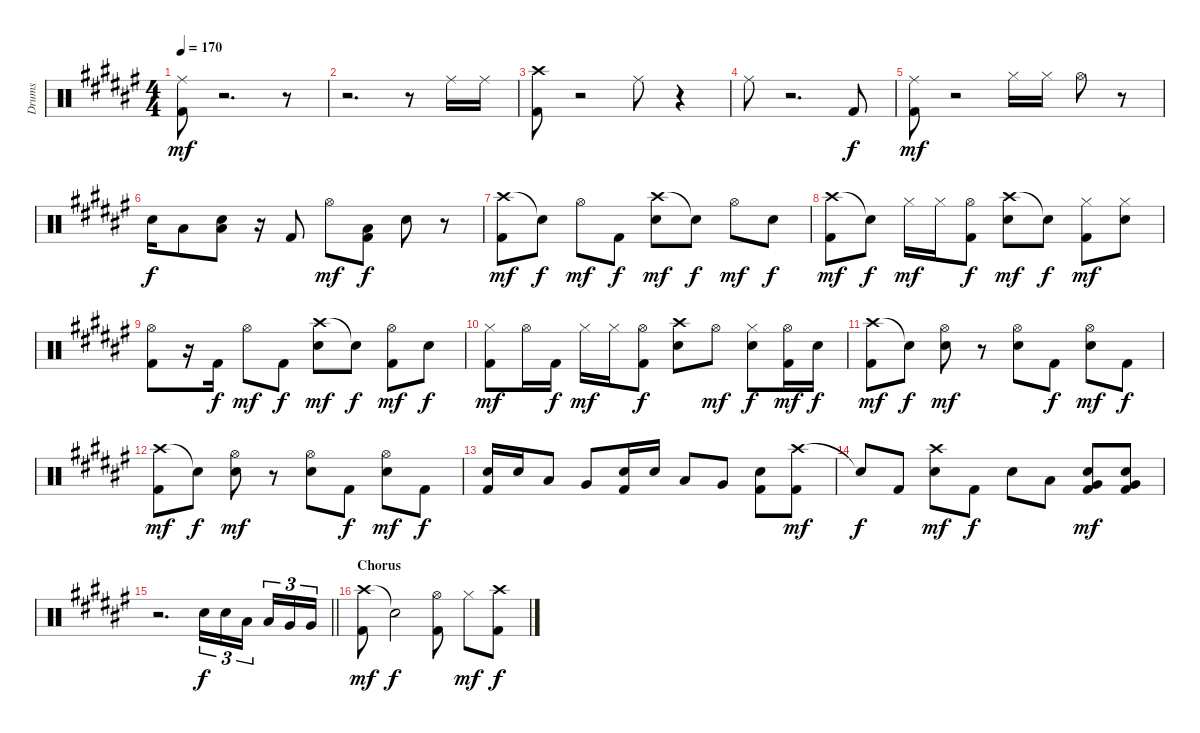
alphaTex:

\track ("Drums" "Drums") {instrument percussion}
\staff {score}
\articulation defaults
\ts (4 4)
\tempo 170
\clef neutral
\ks f#
("Ride (middle)" "Kick (hit) 2").8{dy mf} r.2{d} r.8 |
r.2{d} r.8 "Ride (middle)".16 "Ride (middle)".16 |
("Crash high (hit)" "Kick (hit) 2").8 r.2 "Ride (middle)".8 r.4 |
"Ride (middle)".8 r.2{d} "Kick (hit) 2".8{dy f} |
("Ride (middle)" "Kick (hit) 2").8{dy mf} r.2 "Hi-Hat (closed)".16 "Hi-Hat (closed)".16 "Hi-Hat (open)".8 r.8 |
"Snare (hit) 2".16{dy f} "Low Tom (hit)".8 ("Snare (hit) 2" "Low Tom (hit)").8 r.16 "Kick (hit) 2".8 "Hi-Hat (open)".8{dy mf} ("Low Tom (hit)" "Kick (hit) 2").8{dy f} "Snare (hit) 2".8 r.8 |
("Crash high (hit)" "Kick (hit) 2").8{dy mf} "Snare (hit)"{t}.8{dy f} "Hi-Hat (open)".8{dy mf} "Kick (hit) 2".8{dy f} ("Crash high (hit)" "Snare (hit) 2").8{dy mf} "Snare (hit)"{t}.8{dy f} "Hi-Hat (open)".8{dy mf} "Snare (hit) 2".8{dy f} |
("Crash high (hit)" "Kick (hit) 2").8{dy mf} "Snare (hit)"{t}.8{dy f} "Hi-Hat (closed)".16{dy mf} "Hi-Hat (closed)".16 ("Hi-Hat (open)" "Kick (hit) 2").8{dy f} ("Crash high (hit)" "Snare (hit) 2").8{dy mf} "Snare (hit)"{t}.8{dy f} ("Hi-Hat (closed)" "Kick (hit) 2").8{dy mf} ("Hi-Hat (closed)" "Snare (hit) 2").8 |
("Hi-Hat (open)" "Kick (hit) 2").8 r.16 "Kick (hit) 2".16{dy f} "Hi-Hat (open)".8{dy mf} "Kick (hit) 2".8{dy f} ("Crash high (hit)" "Snare (hit) 2").8{dy mf} "Snare (hit)"{t}.8{dy f} ("Hi-Hat (open)" "Kick (hit) 2").8{dy mf} "Snare (hit) 2".8{dy f} |
("Hi-Hat (closed)" "Kick (hit) 2").8{dy mf} "Hi-Hat (open)".16 "Kick (hit) 2".16{dy f} "Hi-Hat (closed)".16{dy mf} "Hi-Hat (closed)".16 ("Hi-Hat (open)" "Kick (hit) 2").8{dy f} ("Crash high (hit)" "Snare (hit) 2").8 "Hi-Hat (open)".8{dy mf} ("Hi-Hat (closed)" "Snare (hit) 2").8{dy f} ("Hi-Hat (open)" "Kick (hit) 2").16{dy mf} "Snare (hit) 2".16{dy f} |
("Crash high (hit)" "Kick (hit) 2").8{dy mf} "Snare (hit)"{t}.8{dy f} ("Hi-Hat (open)" "Snare (hit) 2").8{dy mf} r.8 ("Hi-Hat (open)" "Snare (hit) 2").8 "Kick (hit) 2".8{dy f} ("Hi-Hat (open)" "Snare (hit) 2").8{dy mf} "Kick (hit) 2".8{dy f} |
("Crash high (hit)" "Kick (hit) 2").8{dy mf} "Snare (hit)"{t}.8{dy f} ("Hi-Hat (open)" "Snare (hit) 2").8{dy mf} r.8 ("Hi-Hat (open)" "Snare (hit) 2").8 "Kick (hit) 2".8{dy f} ("Hi-Hat (open)" "Snare (hit) 2").8{dy mf} "Kick (hit) 2".8{dy f} |
("Snare (hit) 2" "Kick (hit) 2").16 "Snare (hit) 2".16 "Low Tom (hit)".8 "Very Low Tom (hit)".8 ("Snare (hit) 2" "Kick (hit) 2").16 "Snare (hit) 2".16 "Low Tom (hit)".8 "Very Low Tom (hit)".8 ("Snare (hit) 2" "Kick (hit) 2").8 ("Crash high (hit)" "Kick (hit) 2").8{dy mf} |
"Snare (hit)"{t}.8{dy f} "Kick (hit) 2".8 ("Crash high (hit)" "Snare (hit) 2").8{dy mf} "Kick (hit) 2".8{dy f} "Snare (hit) 2".8 "Low Tom (hit)".8 ("Snare (hit) 2" "Very Low Tom (hit)" "Kick (hit) 2").8{dy mf} ("Snare (hit) 2" "Very Low Tom (hit)" "Kick (hit) 2").8 |
\barLineRight lightlight
r.2{d} "Snare (hit) 2".16{tu (3 2) dy f} "Snare (hit) 2".16{tu (3 2)} "Low Tom (hit)".16{tu (3 2) beam splitsecondary} "Low Tom (hit)".16{tu (3 2)} "Very Low Tom (hit)".16{tu (3 2)} "Very Low Tom (hit)".16{tu (3 2)} |
\section ("" "Chorus")
("Crash high (hit)" "Kick (hit) 2").8{dy mf} "Snare (hit)"{t}.2{dy f} ("Hi-Hat (open)" "Kick (hit) 2").8 "Hi-Hat (closed)".8{dy mf} ("Crash high (hit)" "Kick (hit) 2").8{dy f}
